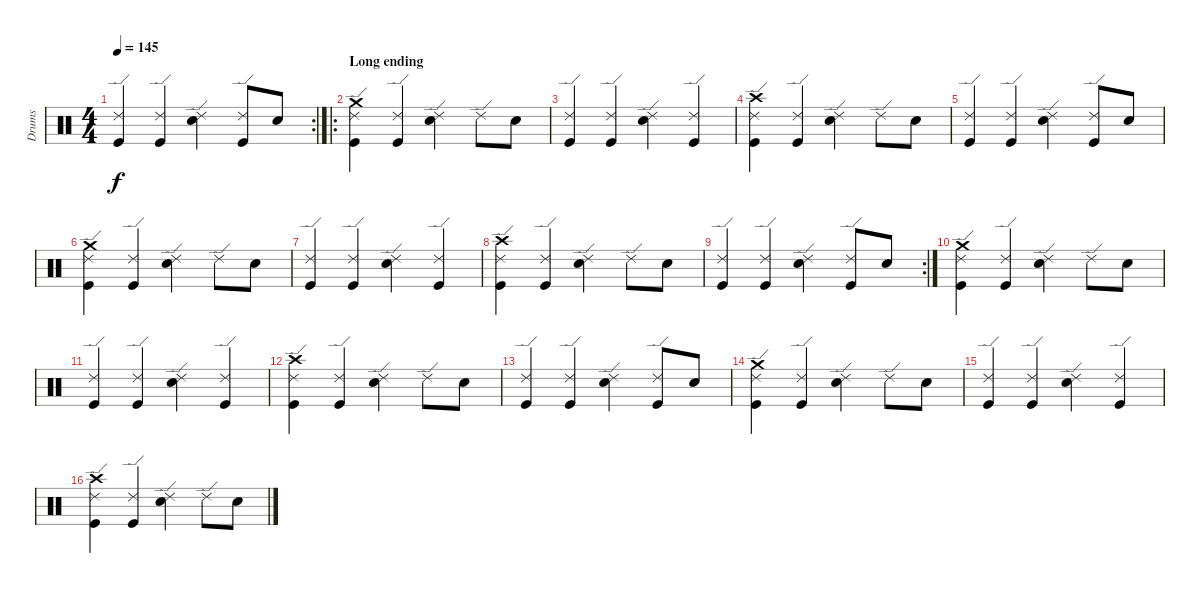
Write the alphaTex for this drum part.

\track ("Drums" "Drums") {instrument percussion}
\staff {score}
\articulation defaults
\rc 2
\ts (4 4)
\tempo 145
\clef neutral
\ks c
("Ride (edge) 2" "Kick (hit)").4{dy f} ("Ride (edge) 2" "Kick (hit)").4 ("Ride (edge) 2" "Electric Snare (hit)").4 ("Ride (edge) 2" "Kick (hit)").8 "Electric Snare (hit)".8 |
\ro
\section ("" "Long ending")
("Ride (edge) 2" "Crash medium (hit)" "Kick (hit)").4 ("Ride (edge) 2" "Kick (hit)").4 ("Ride (edge) 2" "Electric Snare (hit)").4 "Ride (edge) 2".8 "Electric Snare (hit)".8 |
("Ride (edge) 2" "Kick (hit)").4 ("Ride (edge) 2" "Kick (hit)").4 ("Ride (edge) 2" "Electric Snare (hit)").4 ("Ride (edge) 2" "Kick (hit)").4 |
("Ride (edge) 2" "Crash high (hit)" "Kick (hit)").4 ("Ride (edge) 2" "Kick (hit)").4 ("Ride (edge) 2" "Electric Snare (hit)").4 "Ride (edge) 2".8 "Electric Snare (hit)".8 |
("Ride (edge) 2" "Kick (hit)").4 ("Ride (edge) 2" "Kick (hit)").4 ("Ride (edge) 2" "Electric Snare (hit)").4 ("Ride (edge) 2" "Kick (hit)").8 "Electric Snare (hit)".8 |
("Ride (edge) 2" "Crash medium (hit)" "Kick (hit)").4 ("Ride (edge) 2" "Kick (hit)").4 ("Ride (edge) 2" "Electric Snare (hit)").4 "Ride (edge) 2".8 "Electric Snare (hit)".8 |
("Ride (edge) 2" "Kick (hit)").4 ("Ride (edge) 2" "Kick (hit)").4 ("Ride (edge) 2" "Electric Snare (hit)").4 ("Ride (edge) 2" "Kick (hit)").4 |
("Ride (edge) 2" "Crash high (hit)" "Kick (hit)").4 ("Ride (edge) 2" "Kick (hit)").4 ("Ride (edge) 2" "Electric Snare (hit)").4 "Ride (edge) 2".8 "Electric Snare (hit)".8 |
\rc 2
("Ride (edge) 2" "Kick (hit)").4 ("Ride (edge) 2" "Kick (hit)").4 ("Ride (edge) 2" "Electric Snare (hit)").4 ("Ride (edge) 2" "Kick (hit)").8 "Electric Snare (hit)".8 |
("Ride (edge) 2" "Crash medium (hit)" "Kick (hit)").4 ("Ride (edge) 2" "Kick (hit)").4 ("Ride (edge) 2" "Electric Snare (hit)").4 "Ride (edge) 2".8 "Electric Snare (hit)".8 |
("Ride (edge) 2" "Kick (hit)").4 ("Ride (edge) 2" "Kick (hit)").4 ("Ride (edge) 2" "Electric Snare (hit)").4 ("Ride (edge) 2" "Kick (hit)").4 |
("Ride (edge) 2" "Crash high (hit)" "Kick (hit)").4 ("Ride (edge) 2" "Kick (hit)").4 ("Ride (edge) 2" "Electric Snare (hit)").4 "Ride (edge) 2".8 "Electric Snare (hit)".8 |
("Ride (edge) 2" "Kick (hit)").4 ("Ride (edge) 2" "Kick (hit)").4 ("Ride (edge) 2" "Electric Snare (hit)").4 ("Ride (edge) 2" "Kick (hit)").8 "Electric Snare (hit)".8 |
("Ride (edge) 2" "Crash medium (hit)" "Kick (hit)").4 ("Ride (edge) 2" "Kick (hit)").4 ("Ride (edge) 2" "Electric Snare (hit)").4 "Ride (edge) 2".8 "Electric Snare (hit)".8 |
("Ride (edge) 2" "Kick (hit)").4 ("Ride (edge) 2" "Kick (hit)").4 ("Ride (edge) 2" "Electric Snare (hit)").4 ("Ride (edge) 2" "Kick (hit)").4 |
("Ride (edge) 2" "Crash high (hit)" "Kick (hit)").4 ("Ride (edge) 2" "Kick (hit)").4 ("Ride (edge) 2" "Electric Snare (hit)").4 "Ride (edge) 2".8 "Electric Snare (hit)".8
